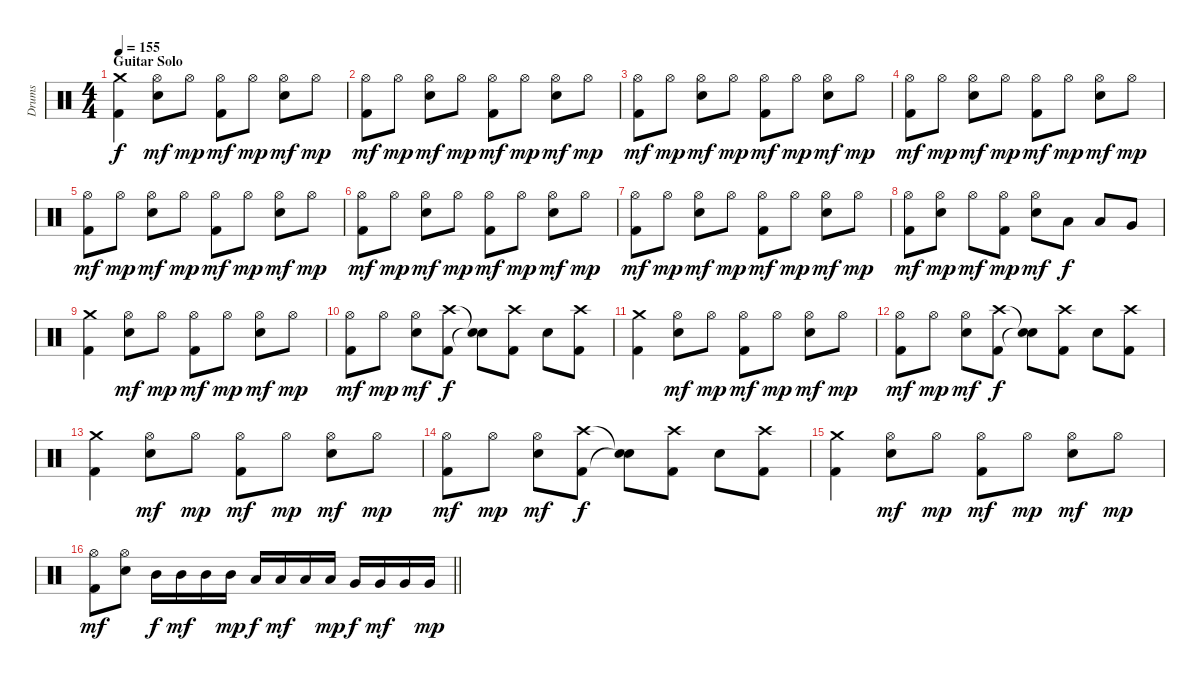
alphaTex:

\track ("Drums" "Drums") {instrument percussion}
\staff {score}
\articulation defaults
\ts (4 4)
\section ("" "Guitar Solo")
\tempo 155
\clef neutral
\ks c
("Kick (hit) 2" "Crash medium (hit)").4{dy f} ("Hi-Hat (open)" "Electric Snare (hit)").8{dy mf} "Hi-Hat (open)".8{dy mp} ("Kick (hit) 2" "Hi-Hat (open)").8{dy mf} "Hi-Hat (open)".8{dy mp} ("Hi-Hat (open)" "Electric Snare (hit)").8{dy mf} "Hi-Hat (open)".8{dy mp} |
("Kick (hit) 2" "Hi-Hat (open)").8{dy mf} "Hi-Hat (open)".8{dy mp} ("Hi-Hat (open)" "Electric Snare (hit)").8{dy mf} "Hi-Hat (open)".8{dy mp} ("Kick (hit) 2" "Hi-Hat (open)").8{dy mf} "Hi-Hat (open)".8{dy mp} ("Hi-Hat (open)" "Electric Snare (hit)").8{dy mf} "Hi-Hat (open)".8{dy mp} |
("Kick (hit) 2" "Hi-Hat (open)").8{dy mf} "Hi-Hat (open)".8{dy mp} ("Hi-Hat (open)" "Electric Snare (hit)").8{dy mf} "Hi-Hat (open)".8{dy mp} ("Kick (hit) 2" "Hi-Hat (open)").8{dy mf} "Hi-Hat (open)".8{dy mp} ("Hi-Hat (open)" "Electric Snare (hit)").8{dy mf} "Hi-Hat (open)".8{dy mp} |
("Kick (hit) 2" "Hi-Hat (open)").8{dy mf} "Hi-Hat (open)".8{dy mp} ("Hi-Hat (open)" "Electric Snare (hit)").8{dy mf} "Hi-Hat (open)".8{dy mp} ("Kick (hit) 2" "Hi-Hat (open)").8{dy mf} "Hi-Hat (open)".8{dy mp} ("Hi-Hat (open)" "Electric Snare (hit)").8{dy mf} "Hi-Hat (open)".8{dy mp} |
("Kick (hit) 2" "Hi-Hat (open)").8{dy mf} "Hi-Hat (open)".8{dy mp} ("Hi-Hat (open)" "Electric Snare (hit)").8{dy mf} "Hi-Hat (open)".8{dy mp} ("Kick (hit) 2" "Hi-Hat (open)").8{dy mf} "Hi-Hat (open)".8{dy mp} ("Hi-Hat (open)" "Electric Snare (hit)").8{dy mf} "Hi-Hat (open)".8{dy mp} |
("Kick (hit) 2" "Hi-Hat (open)").8{dy mf} "Hi-Hat (open)".8{dy mp} ("Hi-Hat (open)" "Electric Snare (hit)").8{dy mf} "Hi-Hat (open)".8{dy mp} ("Kick (hit) 2" "Hi-Hat (open)").8{dy mf} "Hi-Hat (open)".8{dy mp} ("Hi-Hat (open)" "Electric Snare (hit)").8{dy mf} "Hi-Hat (open)".8{dy mp} |
("Kick (hit) 2" "Hi-Hat (open)").8{dy mf} "Hi-Hat (open)".8{dy mp} ("Hi-Hat (open)" "Electric Snare (hit)").8{dy mf} "Hi-Hat (open)".8{dy mp} ("Kick (hit) 2" "Hi-Hat (open)").8{dy mf} "Hi-Hat (open)".8{dy mp} ("Hi-Hat (open)" "Electric Snare (hit)").8{dy mf} "Hi-Hat (open)".8{dy mp} |
("Kick (hit) 2" "Hi-Hat (open)").8{dy mf} ("Hi-Hat (open)" "Electric Snare (hit)").8{dy mp} "Hi-Hat (open)".8{dy mf} ("Kick (hit) 2" "Hi-Hat (open)").8{dy mp} ("Hi-Hat (open)" "Electric Snare (hit)").8{dy mf} "Low Tom (hit)".8{dy f} "Low Tom (hit)".8 "Very Low Tom (hit)".8 |
("Kick (hit) 2" "Crash medium (hit)").4 ("Hi-Hat (open)" "Electric Snare (hit)").8{dy mf} "Hi-Hat (open)".8{dy mp} ("Kick (hit) 2" "Hi-Hat (open)").8{dy mf} "Hi-Hat (open)".8{dy mp} ("Hi-Hat (open)" "Electric Snare (hit)").8{dy mf} "Hi-Hat (open)".8{dy mp} |
("Kick (hit) 2" "Hi-Hat (open)").8{dy mf} "Hi-Hat (open)".8{dy mp} ("Hi-Hat (open)" "Electric Snare (hit)").8{dy mf} ("Kick (hit) 2" "Crash high (hit)").8{dy f} ("Snare (hit)"{t} "Snare (hit)"{t}).8 ("Kick (hit) 2" "Crash high (hit)").8 "Electric Snare (hit)".8 ("Kick (hit) 2" "Crash high (hit)").8 |
("Kick (hit) 2" "Crash medium (hit)").4 ("Hi-Hat (open)" "Electric Snare (hit)").8{dy mf} "Hi-Hat (open)".8{dy mp} ("Kick (hit) 2" "Hi-Hat (open)").8{dy mf} "Hi-Hat (open)".8{dy mp} ("Hi-Hat (open)" "Electric Snare (hit)").8{dy mf} "Hi-Hat (open)".8{dy mp} |
("Kick (hit) 2" "Hi-Hat (open)").8{dy mf} "Hi-Hat (open)".8{dy mp} ("Hi-Hat (open)" "Electric Snare (hit)").8{dy mf} ("Kick (hit) 2" "Crash high (hit)").8{dy f} ("Snare (hit)"{t} "Snare (hit)"{t}).8 ("Kick (hit) 2" "Crash high (hit)").8 "Electric Snare (hit)".8 ("Kick (hit) 2" "Crash high (hit)").8 |
("Kick (hit) 2" "Crash medium (hit)").4 ("Hi-Hat (open)" "Electric Snare (hit)").8{dy mf} "Hi-Hat (open)".8{dy mp} ("Kick (hit) 2" "Hi-Hat (open)").8{dy mf} "Hi-Hat (open)".8{dy mp} ("Hi-Hat (open)" "Electric Snare (hit)").8{dy mf} "Hi-Hat (open)".8{dy mp} |
("Kick (hit) 2" "Hi-Hat (open)").8{dy mf} "Hi-Hat (open)".8{dy mp} ("Hi-Hat (open)" "Electric Snare (hit)").8{dy mf} ("Kick (hit) 2" "Crash high (hit)").8{dy f} ("Snare (hit)"{t} "Snare (hit)"{t}).8 ("Kick (hit) 2" "Crash high (hit)").8 "Electric Snare (hit)".8 ("Kick (hit) 2" "Crash high (hit)").8 |
("Kick (hit) 2" "Crash medium (hit)").4 ("Hi-Hat (open)" "Electric Snare (hit)").8{dy mf} "Hi-Hat (open)".8{dy mp} ("Kick (hit) 2" "Hi-Hat (open)").8{dy mf} "Hi-Hat (open)".8{dy mp} ("Hi-Hat (open)" "Electric Snare (hit)").8{dy mf} "Hi-Hat (open)".8{dy mp} |
\barLineRight lightlight
("Kick (hit) 2" "Hi-Hat (open)").8{dy mf} ("Hi-Hat (open)" "Electric Snare (hit)").8 "Mid Tom (hit)".16{dy f} "Mid Tom (hit)".16{dy mf} "Mid Tom (hit)".16 "Mid Tom (hit)".16{dy mp} "Low Tom (hit)".16{dy f} "Low Tom (hit)".16{dy mf} "Low Tom (hit)".16 "Low Tom (hit)".16{dy mp} "Very Low Tom (hit)".16{dy f} "Very Low Tom (hit)".16{dy mf} "Very Low Tom (hit)".16 "Very Low Tom (hit)".16{dy mp}
